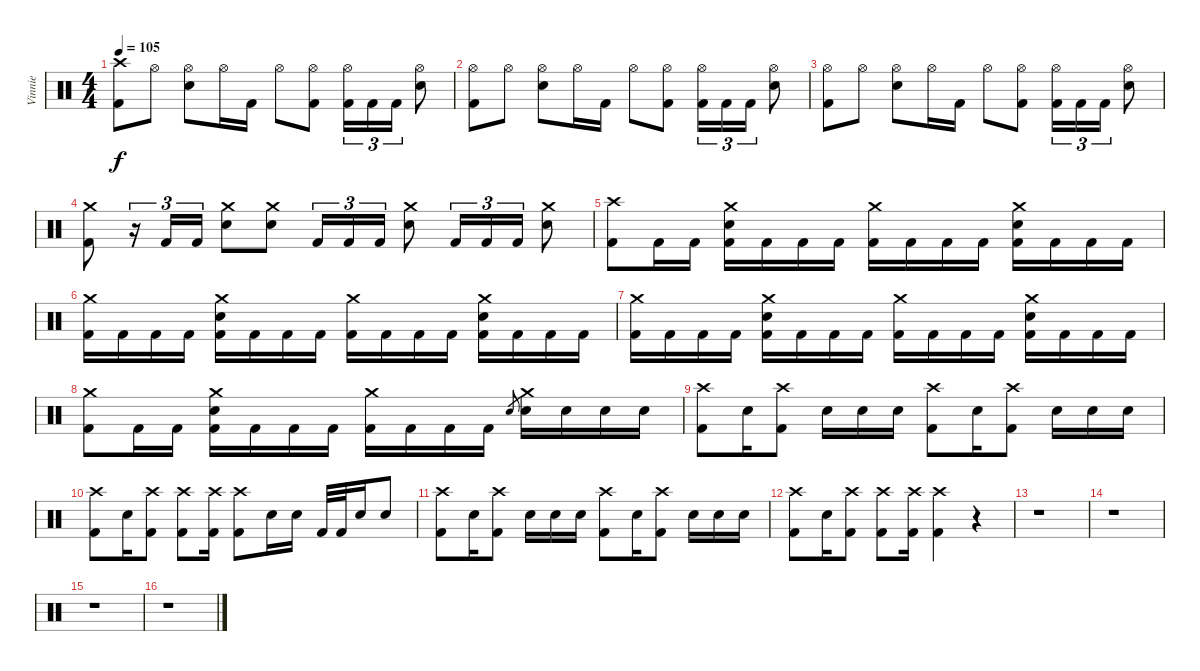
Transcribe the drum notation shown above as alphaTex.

\track ("Vinnie" "Vinnie") {instrument percussion}
\staff {score}
\articulation defaults
\ts (4 4)
\tempo 105
\clef neutral
\ks c
("Crash high (hit)" "Kick (hit) 2").8{dy f} "Hi-Hat (open)".8 ("Hi-Hat (open)" "Electric Snare (hit)").8 "Hi-Hat (open)".16 "Kick (hit) 2".16 "Hi-Hat (open)".8 ("Hi-Hat (open)" "Kick (hit) 2").8 ("Hi-Hat (open)" "Kick (hit) 2").16{tu (3 2)} "Kick (hit) 2".16{tu (3 2)} "Kick (hit) 2".16{tu (3 2)} ("Hi-Hat (open)" "Electric Snare (hit)").8 |
("Hi-Hat (open)" "Kick (hit) 2").8 "Hi-Hat (open)".8 ("Hi-Hat (open)" "Electric Snare (hit)").8 "Hi-Hat (open)".16 "Kick (hit) 2".16 "Hi-Hat (open)".8 ("Hi-Hat (open)" "Kick (hit) 2").8 ("Hi-Hat (open)" "Kick (hit) 2").16{tu (3 2)} "Kick (hit) 2".16{tu (3 2)} "Kick (hit) 2".16{tu (3 2)} ("Hi-Hat (open)" "Electric Snare (hit)").8 |
("Hi-Hat (open)" "Kick (hit) 2").8 "Hi-Hat (open)".8 ("Hi-Hat (open)" "Electric Snare (hit)").8 "Hi-Hat (open)".16 "Kick (hit) 2".16 "Hi-Hat (open)".8 ("Hi-Hat (open)" "Kick (hit) 2").8 ("Hi-Hat (open)" "Kick (hit) 2").16{tu (3 2)} "Kick (hit) 2".16{tu (3 2)} "Kick (hit) 2".16{tu (3 2)} ("Hi-Hat (open)" "Electric Snare (hit)").8 |
("Crash medium (hit)" "Kick (hit) 2").8 r.16{tu (3 2)} "Kick (hit) 2".16{tu (3 2)} "Kick (hit) 2".16{tu (3 2)} ("Crash medium (hit)" "Electric Snare (hit)").8 ("Crash medium (hit)" "Electric Snare (hit)").8 "Kick (hit) 2".16{tu (3 2)} "Kick (hit) 2".16{tu (3 2)} "Kick (hit) 2".16{tu (3 2)} ("Crash medium (hit)" "Electric Snare (hit)").8 "Kick (hit) 2".16{tu (3 2)} "Kick (hit) 2".16{tu (3 2)} "Kick (hit) 2".16{tu (3 2)} ("Crash medium (hit)" "Electric Snare (hit)").8 |
("Crash high (hit)" "Kick (hit) 2").8 "Kick (hit) 2".16 "Kick (hit) 2".16 ("Crash medium (hit)" "Electric Snare (hit)" "Kick (hit) 2").16 "Kick (hit) 2".16 "Kick (hit) 2".16 "Kick (hit) 2".16 ("Crash medium (hit)" "Kick (hit) 2").16 "Kick (hit) 2".16 "Kick (hit) 2".16 "Kick (hit) 2".16 ("Crash medium (hit)" "Electric Snare (hit)" "Kick (hit) 2").16 "Kick (hit) 2".16 "Kick (hit) 2".16 "Kick (hit) 2".16 |
("Crash medium (hit)" "Kick (hit) 2").16 "Kick (hit) 2".16 "Kick (hit) 2".16 "Kick (hit) 2".16 ("Crash medium (hit)" "Electric Snare (hit)" "Kick (hit) 2").16 "Kick (hit) 2".16 "Kick (hit) 2".16 "Kick (hit) 2".16 ("Crash medium (hit)" "Kick (hit) 2").16 "Kick (hit) 2".16 "Kick (hit) 2".16 "Kick (hit) 2".16 ("Crash medium (hit)" "Electric Snare (hit)" "Kick (hit) 2").16 "Kick (hit) 2".16 "Kick (hit) 2".16 "Kick (hit) 2".16 |
("Crash medium (hit)" "Kick (hit) 2").16 "Kick (hit) 2".16 "Kick (hit) 2".16 "Kick (hit) 2".16 ("Crash medium (hit)" "Electric Snare (hit)" "Kick (hit) 2").16 "Kick (hit) 2".16 "Kick (hit) 2".16 "Kick (hit) 2".16 ("Crash medium (hit)" "Kick (hit) 2").16 "Kick (hit) 2".16 "Kick (hit) 2".16 "Kick (hit) 2".16 ("Crash medium (hit)" "Electric Snare (hit)" "Kick (hit) 2").16 "Kick (hit) 2".16 "Kick (hit) 2".16 "Kick (hit) 2".16 |
("Crash medium (hit)" "Kick (hit) 2").8 "Kick (hit) 2".16 "Kick (hit) 2".16 ("Crash medium (hit)" "Electric Snare (hit)" "Kick (hit) 2").16 "Kick (hit) 2".16 "Kick (hit) 2".16 "Kick (hit) 2".16 ("Crash medium (hit)" "Kick (hit) 2").16 "Kick (hit) 2".16 "Kick (hit) 2".16 "Kick (hit) 2".16 "Electric Snare (hit)".8{gr} ("Crash medium (hit)" "Electric Snare (hit)").16 "Electric Snare (hit)".16 "Electric Snare (hit)".16 "Electric Snare (hit)".16 |
("Crash high (hit)" "Kick (hit) 2").8 "Electric Snare (hit)".16 ("Crash high (hit)" "Kick (hit) 2").8 "Electric Snare (hit)".16 "Electric Snare (hit)".16 "Electric Snare (hit)".16 ("Crash high (hit)" "Kick (hit) 2").8 "Electric Snare (hit)".16 ("Crash high (hit)" "Kick (hit) 2").8 "Electric Snare (hit)".16 "Electric Snare (hit)".16 "Electric Snare (hit)".16 |
("Crash high (hit)" "Kick (hit) 2").8 "Electric Snare (hit)".16 ("Crash high (hit)" "Kick (hit) 2").8 ("Crash high (hit)" "Kick (hit) 2").8 ("Crash high (hit)" "Kick (hit) 2").16 ("Crash high (hit)" "Kick (hit) 2").8 "Electric Snare (hit)".16 "Electric Snare (hit)".16 "Kick (hit) 2".32 "Kick (hit) 2".32 "Electric Snare (hit)".16 "Electric Snare (hit)".8 |
("Crash high (hit)" "Kick (hit) 2").8 "Electric Snare (hit)".16 ("Crash high (hit)" "Kick (hit) 2").8 "Electric Snare (hit)".16 "Electric Snare (hit)".16 "Electric Snare (hit)".16 ("Crash high (hit)" "Kick (hit) 2").8 "Electric Snare (hit)".16 ("Crash high (hit)" "Kick (hit) 2").8 "Electric Snare (hit)".16 "Electric Snare (hit)".16 "Electric Snare (hit)".16 |
("Crash high (hit)" "Kick (hit) 2").8 "Electric Snare (hit)".16 ("Crash high (hit)" "Kick (hit) 2").8 ("Crash high (hit)" "Kick (hit) 2").8 ("Crash high (hit)" "Kick (hit) 2").16 ("Crash high (hit)" "Kick (hit) 2").4 r.4 |
r.1 |
r.1 |
r.1 |
r.1
